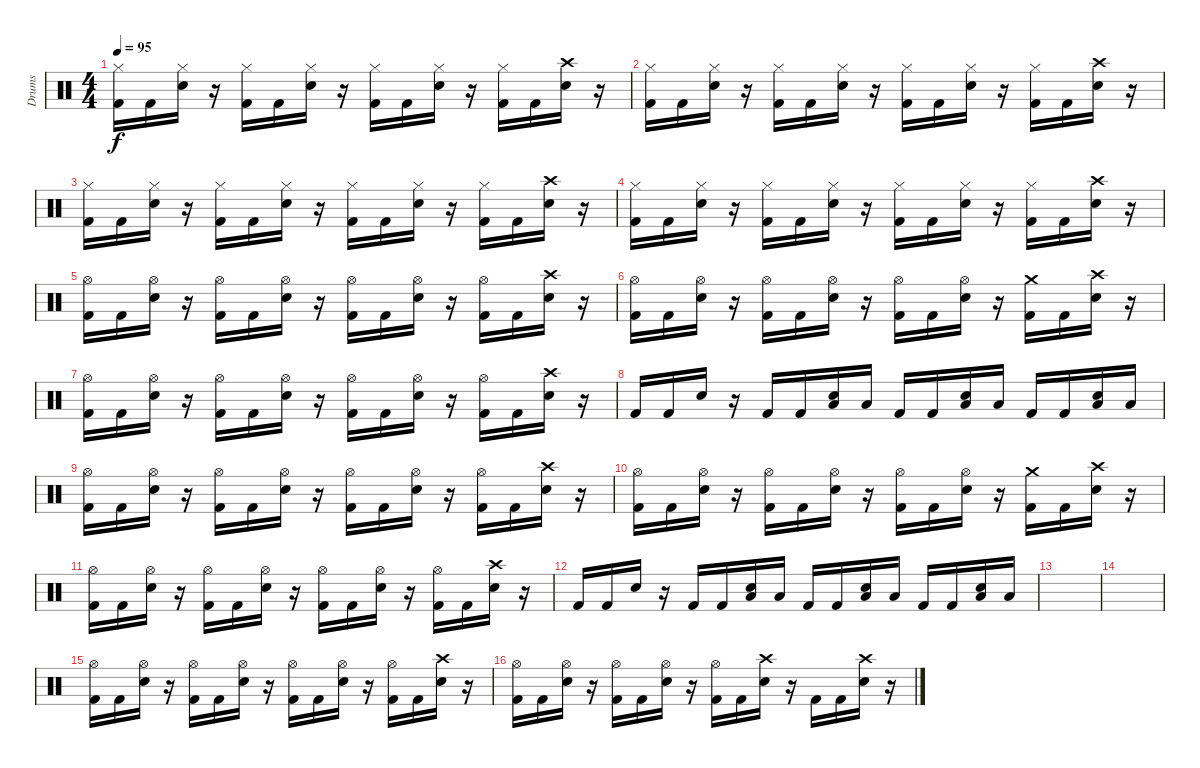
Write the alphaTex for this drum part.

\track ("Drums" "Drums") {instrument percussion}
\staff {score}
\articulation defaults
\ts (4 4)
\tempo 95
\clef neutral
\ks c
("Kick (hit) 2" "Hi-Hat (closed)").16{dy f} "Kick (hit) 2".16 ("Snare (hit) 2" "Hi-Hat (closed)").16 r.16 ("Kick (hit) 2" "Hi-Hat (closed)").16 "Kick (hit) 2".16 ("Snare (hit) 2" "Hi-Hat (closed)").16 r.16 ("Kick (hit) 2" "Hi-Hat (closed)").16 "Kick (hit) 2".16 ("Snare (hit) 2" "Hi-Hat (closed)").16 r.16 ("Kick (hit) 2" "Hi-Hat (closed)").16 "Kick (hit) 2".16 ("Snare (hit) 2" "Crash high (hit)").16 r.16 |
("Kick (hit) 2" "Hi-Hat (closed)").16 "Kick (hit) 2".16 ("Snare (hit) 2" "Hi-Hat (closed)").16 r.16 ("Kick (hit) 2" "Hi-Hat (closed)").16 "Kick (hit) 2".16 ("Snare (hit) 2" "Hi-Hat (closed)").16 r.16 ("Kick (hit) 2" "Hi-Hat (closed)").16 "Kick (hit) 2".16 ("Snare (hit) 2" "Hi-Hat (closed)").16 r.16 ("Kick (hit) 2" "Hi-Hat (closed)").16 "Kick (hit) 2".16 ("Snare (hit) 2" "Crash high (hit)").16 r.16 |
("Kick (hit) 2" "Hi-Hat (closed)").16 "Kick (hit) 2".16 ("Snare (hit) 2" "Hi-Hat (closed)").16 r.16 ("Kick (hit) 2" "Hi-Hat (closed)").16 "Kick (hit) 2".16 ("Snare (hit) 2" "Hi-Hat (closed)").16 r.16 ("Kick (hit) 2" "Hi-Hat (closed)").16 "Kick (hit) 2".16 ("Snare (hit) 2" "Hi-Hat (closed)").16 r.16 ("Kick (hit) 2" "Hi-Hat (closed)").16 "Kick (hit) 2".16 ("Snare (hit) 2" "Crash high (hit)").16 r.16 |
("Kick (hit) 2" "Hi-Hat (closed)").16 "Kick (hit) 2".16 ("Snare (hit) 2" "Hi-Hat (closed)").16 r.16 ("Kick (hit) 2" "Hi-Hat (closed)").16 "Kick (hit) 2".16 ("Snare (hit) 2" "Hi-Hat (closed)").16 r.16 ("Kick (hit) 2" "Hi-Hat (closed)").16 "Kick (hit) 2".16 ("Snare (hit) 2" "Hi-Hat (closed)").16 r.16 ("Kick (hit) 2" "Hi-Hat (closed)").16 "Kick (hit) 2".16 ("Snare (hit) 2" "Crash high (hit)").16 r.16 |
("Kick (hit) 2" "Hi-Hat (open)").16 "Kick (hit) 2".16 ("Snare (hit) 2" "Hi-Hat (open)").16 r.16 ("Kick (hit) 2" "Hi-Hat (open)").16 "Kick (hit) 2".16 ("Snare (hit) 2" "Hi-Hat (open)").16 r.16 ("Kick (hit) 2" "Hi-Hat (open)").16 "Kick (hit) 2".16 ("Snare (hit) 2" "Hi-Hat (open)").16 r.16 ("Kick (hit) 2" "Hi-Hat (open)").16 "Kick (hit) 2".16 ("Snare (hit) 2" "Crash high (hit)").16 r.16 |
("Kick (hit) 2" "Hi-Hat (open)").16 "Kick (hit) 2".16 ("Snare (hit) 2" "Hi-Hat (open)").16 r.16 ("Kick (hit) 2" "Hi-Hat (open)").16 "Kick (hit) 2".16 ("Snare (hit) 2" "Hi-Hat (open)").16 r.16 ("Kick (hit) 2" "Hi-Hat (open)").16 "Kick (hit) 2".16 ("Snare (hit) 2" "Hi-Hat (open)").16 r.16 ("Kick (hit) 2" "Crash medium (hit)").16 "Kick (hit) 2".16 ("Snare (hit) 2" "Crash high (hit)").16 r.16 |
("Kick (hit) 2" "Hi-Hat (open)").16 "Kick (hit) 2".16 ("Snare (hit) 2" "Hi-Hat (open)").16 r.16 ("Kick (hit) 2" "Hi-Hat (open)").16 "Kick (hit) 2".16 ("Snare (hit) 2" "Hi-Hat (open)").16 r.16 ("Kick (hit) 2" "Hi-Hat (open)").16 "Kick (hit) 2".16 ("Snare (hit) 2" "Hi-Hat (open)").16 r.16 ("Kick (hit) 2" "Hi-Hat (open)").16 "Kick (hit) 2".16 ("Snare (hit) 2" "Crash high (hit)").16 r.16 |
"Kick (hit) 2".16 "Kick (hit) 2".16 "Snare (hit) 2".16 r.16 "Kick (hit) 2".16 "Kick (hit) 2".16 ("Snare (hit) 2" "Low Tom (hit)").16 "Low Tom (hit)".16 "Kick (hit) 2".16 "Kick (hit) 2".16 ("Snare (hit) 2" "Low Tom (hit)").16 "Low Tom (hit)".16 "Kick (hit) 2".16 "Kick (hit) 2".16 ("Snare (hit) 2" "Low Tom (hit)").16 "Low Tom (hit)".16 |
("Kick (hit) 2" "Hi-Hat (open)").16 "Kick (hit) 2".16 ("Snare (hit) 2" "Hi-Hat (open)").16 r.16 ("Kick (hit) 2" "Hi-Hat (open)").16 "Kick (hit) 2".16 ("Snare (hit) 2" "Hi-Hat (open)").16 r.16 ("Kick (hit) 2" "Hi-Hat (open)").16 "Kick (hit) 2".16 ("Snare (hit) 2" "Hi-Hat (open)").16 r.16 ("Kick (hit) 2" "Hi-Hat (open)").16 "Kick (hit) 2".16 ("Snare (hit) 2" "Crash high (hit)").16 r.16 |
("Kick (hit) 2" "Hi-Hat (open)").16 "Kick (hit) 2".16 ("Snare (hit) 2" "Hi-Hat (open)").16 r.16 ("Kick (hit) 2" "Hi-Hat (open)").16 "Kick (hit) 2".16 ("Snare (hit) 2" "Hi-Hat (open)").16 r.16 ("Kick (hit) 2" "Hi-Hat (open)").16 "Kick (hit) 2".16 ("Snare (hit) 2" "Hi-Hat (open)").16 r.16 ("Kick (hit) 2" "Crash medium (hit)").16 "Kick (hit) 2".16 ("Snare (hit) 2" "Crash high (hit)").16 r.16 |
("Kick (hit) 2" "Hi-Hat (open)").16 "Kick (hit) 2".16 ("Snare (hit) 2" "Hi-Hat (open)").16 r.16 ("Kick (hit) 2" "Hi-Hat (open)").16 "Kick (hit) 2".16 ("Snare (hit) 2" "Hi-Hat (open)").16 r.16 ("Kick (hit) 2" "Hi-Hat (open)").16 "Kick (hit) 2".16 ("Snare (hit) 2" "Hi-Hat (open)").16 r.16 ("Kick (hit) 2" "Hi-Hat (open)").16 "Kick (hit) 2".16 ("Snare (hit) 2" "Crash high (hit)").16 r.16 |
"Kick (hit) 2".16 "Kick (hit) 2".16 "Snare (hit) 2".16 r.16 "Kick (hit) 2".16 "Kick (hit) 2".16 ("Snare (hit) 2" "Low Tom (hit)").16 "Low Tom (hit)".16 "Kick (hit) 2".16 "Kick (hit) 2".16 ("Snare (hit) 2" "Low Tom (hit)").16 "Low Tom (hit)".16 "Kick (hit) 2".16 "Kick (hit) 2".16 ("Snare (hit) 2" "Low Tom (hit)").16 "Low Tom (hit)".16 |
|
|
("Kick (hit) 2" "Hi-Hat (open)").16 "Kick (hit) 2".16 ("Snare (hit) 2" "Hi-Hat (open)").16 r.16 ("Kick (hit) 2" "Hi-Hat (open)").16 "Kick (hit) 2".16 ("Snare (hit) 2" "Hi-Hat (open)").16 r.16 ("Kick (hit) 2" "Hi-Hat (open)").16 "Kick (hit) 2".16 ("Snare (hit) 2" "Hi-Hat (open)").16 r.16 ("Kick (hit) 2" "Hi-Hat (open)").16 "Kick (hit) 2".16 ("Snare (hit) 2" "Crash high (hit)").16 r.16 |
("Kick (hit) 2" "Hi-Hat (open)").16 "Kick (hit) 2".16 ("Snare (hit) 2" "Hi-Hat (open)").16 r.16 ("Kick (hit) 2" "Hi-Hat (open)").16 "Kick (hit) 2".16 ("Snare (hit) 2" "Hi-Hat (open)").16 r.16 ("Kick (hit) 2" "Hi-Hat (open)").16 "Kick (hit) 2".16 ("Snare (hit) 2" "Crash high (hit)").16 r.16 "Kick (hit) 2".16 "Kick (hit) 2".16 ("Snare (hit) 2" "Crash high (hit)").16 r.16
